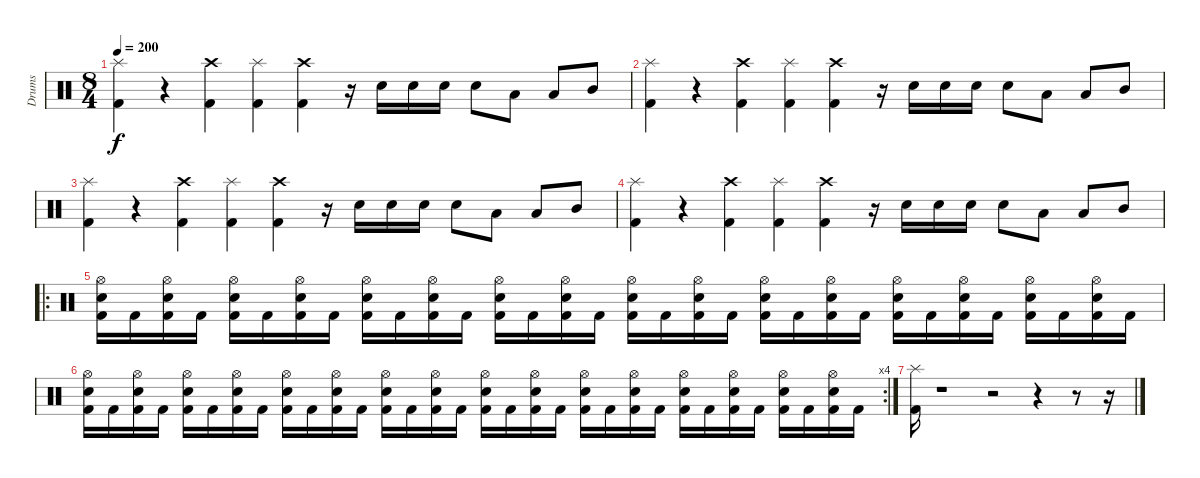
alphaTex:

\track ("Drums" "Drums") {instrument percussion}
\staff {score}
\articulation defaults
\ts (8 4)
\tempo 200
\clef neutral
\ks c
("Splash (hit)" "Kick (hit) 2").4{dy f} r.4 ("Crash high (hit)" "Kick (hit) 2").4 ("Splash (hit)" "Kick (hit) 2").4 ("Crash high (hit)" "Kick (hit) 2").4 r.16 "Snare (hit) 2".16 "Snare (hit) 2".16 "Snare (hit) 2".16 "Snare (hit) 2".8 "Low Tom (hit)".8 "Low Tom (hit)".8 "Mid Tom (hit)".8 |
("Splash (hit)" "Kick (hit) 2").4 r.4 ("Crash high (hit)" "Kick (hit) 2").4 ("Splash (hit)" "Kick (hit) 2").4 ("Crash high (hit)" "Kick (hit) 2").4 r.16 "Snare (hit) 2".16 "Snare (hit) 2".16 "Snare (hit) 2".16 "Snare (hit) 2".8 "Low Tom (hit)".8 "Low Tom (hit)".8 "Mid Tom (hit)".8 |
("Splash (hit)" "Kick (hit) 2").4 r.4 ("Crash high (hit)" "Kick (hit) 2").4 ("Splash (hit)" "Kick (hit) 2").4 ("Crash high (hit)" "Kick (hit) 2").4 r.16 "Snare (hit) 2".16 "Snare (hit) 2".16 "Snare (hit) 2".16 "Snare (hit) 2".8 "Low Tom (hit)".8 "Low Tom (hit)".8 "Mid Tom (hit)".8 |
("Splash (hit)" "Kick (hit) 2").4 r.4 ("Crash high (hit)" "Kick (hit) 2").4 ("Splash (hit)" "Kick (hit) 2").4 ("Crash high (hit)" "Kick (hit) 2").4 r.16 "Snare (hit) 2".16 "Snare (hit) 2".16 "Snare (hit) 2".16 "Snare (hit) 2".8 "Low Tom (hit)".8 "Low Tom (hit)".8 "Mid Tom (hit)".8 |
\ro
("Hi-Hat (open)" "Snare (hit) 2" "Kick (hit) 2").16 "Kick (hit) 2".16 ("Hi-Hat (open)" "Snare (hit) 2" "Kick (hit) 2").16 "Kick (hit) 2".16 ("Hi-Hat (open)" "Snare (hit) 2" "Kick (hit) 2").16 "Kick (hit) 2".16 ("Hi-Hat (open)" "Snare (hit) 2" "Kick (hit) 2").16 "Kick (hit) 2".16 ("Hi-Hat (open)" "Snare (hit) 2" "Kick (hit) 2").16 "Kick (hit) 2".16 ("Hi-Hat (open)" "Snare (hit) 2" "Kick (hit) 2").16 "Kick (hit) 2".16 ("Hi-Hat (open)" "Snare (hit) 2" "Kick (hit) 2").16 "Kick (hit) 2".16 ("Hi-Hat (open)" "Snare (hit) 2" "Kick (hit) 2").16 "Kick (hit) 2".16 ("Hi-Hat (open)" "Snare (hit) 2" "Kick (hit) 2").16 "Kick (hit) 2".16 ("Hi-Hat (open)" "Snare (hit) 2" "Kick (hit) 2").16 "Kick (hit) 2".16 ("Hi-Hat (open)" "Snare (hit) 2" "Kick (hit) 2").16 "Kick (hit) 2".16 ("Hi-Hat (open)" "Snare (hit) 2" "Kick (hit) 2").16 "Kick (hit) 2".16 ("Hi-Hat (open)" "Snare (hit) 2" "Kick (hit) 2").16 "Kick (hit) 2".16 ("Hi-Hat (open)" "Snare (hit) 2" "Kick (hit) 2").16 "Kick (hit) 2".16 ("Hi-Hat (open)" "Snare (hit) 2" "Kick (hit) 2").16 "Kick (hit) 2".16 ("Hi-Hat (open)" "Snare (hit) 2" "Kick (hit) 2").16 "Kick (hit) 2".16 |
\rc 4
("Hi-Hat (open)" "Snare (hit) 2" "Kick (hit) 2").16 "Kick (hit) 2".16 ("Hi-Hat (open)" "Snare (hit) 2" "Kick (hit) 2").16 "Kick (hit) 2".16 ("Hi-Hat (open)" "Snare (hit) 2" "Kick (hit) 2").16 "Kick (hit) 2".16 ("Hi-Hat (open)" "Snare (hit) 2" "Kick (hit) 2").16 "Kick (hit) 2".16 ("Hi-Hat (open)" "Snare (hit) 2" "Kick (hit) 2").16 "Kick (hit) 2".16 ("Hi-Hat (open)" "Snare (hit) 2" "Kick (hit) 2").16 "Kick (hit) 2".16 ("Hi-Hat (open)" "Snare (hit) 2" "Kick (hit) 2").16 "Kick (hit) 2".16 ("Hi-Hat (open)" "Snare (hit) 2" "Kick (hit) 2").16 "Kick (hit) 2".16 ("Hi-Hat (open)" "Snare (hit) 2" "Kick (hit) 2").16 "Kick (hit) 2".16 ("Hi-Hat (open)" "Snare (hit) 2" "Kick (hit) 2").16 "Kick (hit) 2".16 ("Hi-Hat (open)" "Snare (hit) 2" "Kick (hit) 2").16 "Kick (hit) 2".16 ("Hi-Hat (open)" "Snare (hit) 2" "Kick (hit) 2").16 "Kick (hit) 2".16 ("Hi-Hat (open)" "Snare (hit) 2" "Kick (hit) 2").16 "Kick (hit) 2".16 ("Hi-Hat (open)" "Snare (hit) 2" "Kick (hit) 2").16 "Kick (hit) 2".16 ("Hi-Hat (open)" "Snare (hit) 2" "Kick (hit) 2").16 "Kick (hit) 2".16 ("Hi-Hat (open)" "Snare (hit) 2" "Kick (hit) 2").16 "Kick (hit) 2".16 |
("Splash (hit)" "Kick (hit) 2").16 r.1 r.2 r.4 r.8 r.16
